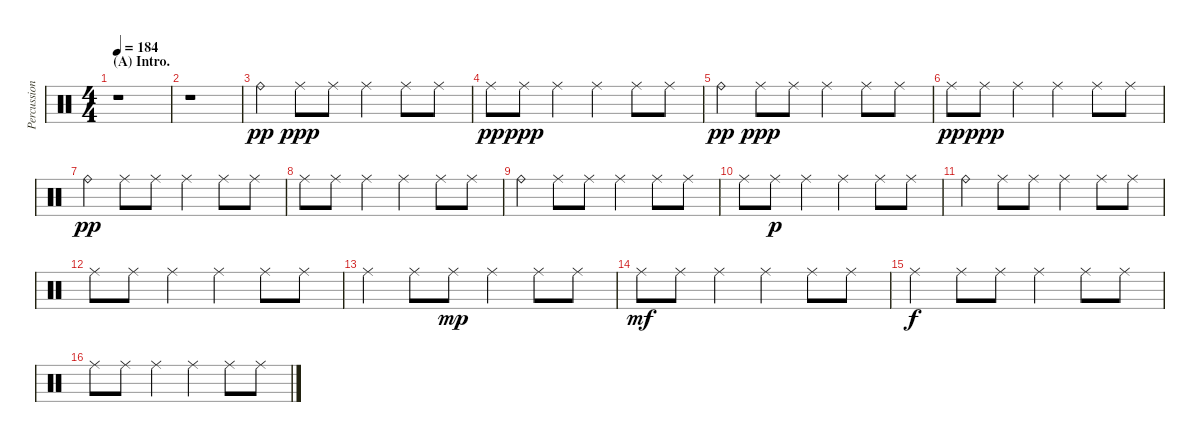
\track ("Percussion" "Percussion") {instrument percussion}
\staff {score}
\articulation defaults
\ts (4 4)
\section ("" "(A) Intro.")
\tempo 184
\clef neutral
\ks c
r.1{dy pp} |
r.1 |
"Ride (bell)".4 "Ride (middle)".8{dy ppp} "Ride (middle)".8 "Ride (middle)".4 "Ride (middle)".8 "Ride (middle)".8 |
"Ride (middle)".8{dy pp} "Ride (middle)".8{dy ppp} "Ride (middle)".4 "Ride (middle)".4 "Ride (middle)".8 "Ride (middle)".8 |
"Ride (bell)".4{dy pp} "Ride (middle)".8{dy ppp} "Ride (middle)".8 "Ride (middle)".4 "Ride (middle)".8 "Ride (middle)".8 |
"Ride (middle)".8{dy pp} "Ride (middle)".8{dy ppp} "Ride (middle)".4 "Ride (middle)".4 "Ride (middle)".8 "Ride (middle)".8 |
"Ride (bell)".4{dy pp} "Ride (middle)".8 "Ride (middle)".8 "Ride (middle)".4 "Ride (middle)".8 "Ride (middle)".8 |
"Ride (middle)".8 "Ride (middle)".8 "Ride (middle)".4 "Ride (middle)".4 "Ride (middle)".8 "Ride (middle)".8 |
"Ride (bell)".4 "Ride (middle)".8 "Ride (middle)".8 "Ride (middle)".4 "Ride (middle)".8 "Ride (middle)".8 |
"Ride (middle)".8 "Ride (middle)".8{dy p} "Ride (middle)".4 "Ride (middle)".4 "Ride (middle)".8 "Ride (middle)".8 |
"Ride (bell)".4 "Ride (middle)".8 "Ride (middle)".8 "Ride (middle)".4 "Ride (middle)".8 "Ride (middle)".8 |
"Ride (middle)".8 "Ride (middle)".8 "Ride (middle)".4 "Ride (middle)".4 "Ride (middle)".8 "Ride (middle)".8 |
"Ride (middle)".4 "Ride (middle)".8 "Ride (middle)".8{dy mp} "Ride (middle)".4 "Ride (middle)".8 "Ride (middle)".8 |
"Ride (middle)".8{dy mf} "Ride (middle)".8 "Ride (middle)".4 "Ride (middle)".4 "Ride (middle)".8 "Ride (middle)".8 |
"Ride (middle)".4{dy f} "Ride (middle)".8 "Ride (middle)".8 "Ride (middle)".4 "Ride (middle)".8 "Ride (middle)".8 |
"Ride (middle)".8 "Ride (middle)".8 "Ride (middle)".4 "Ride (middle)".4 "Ride (middle)".8 "Ride (middle)".8
